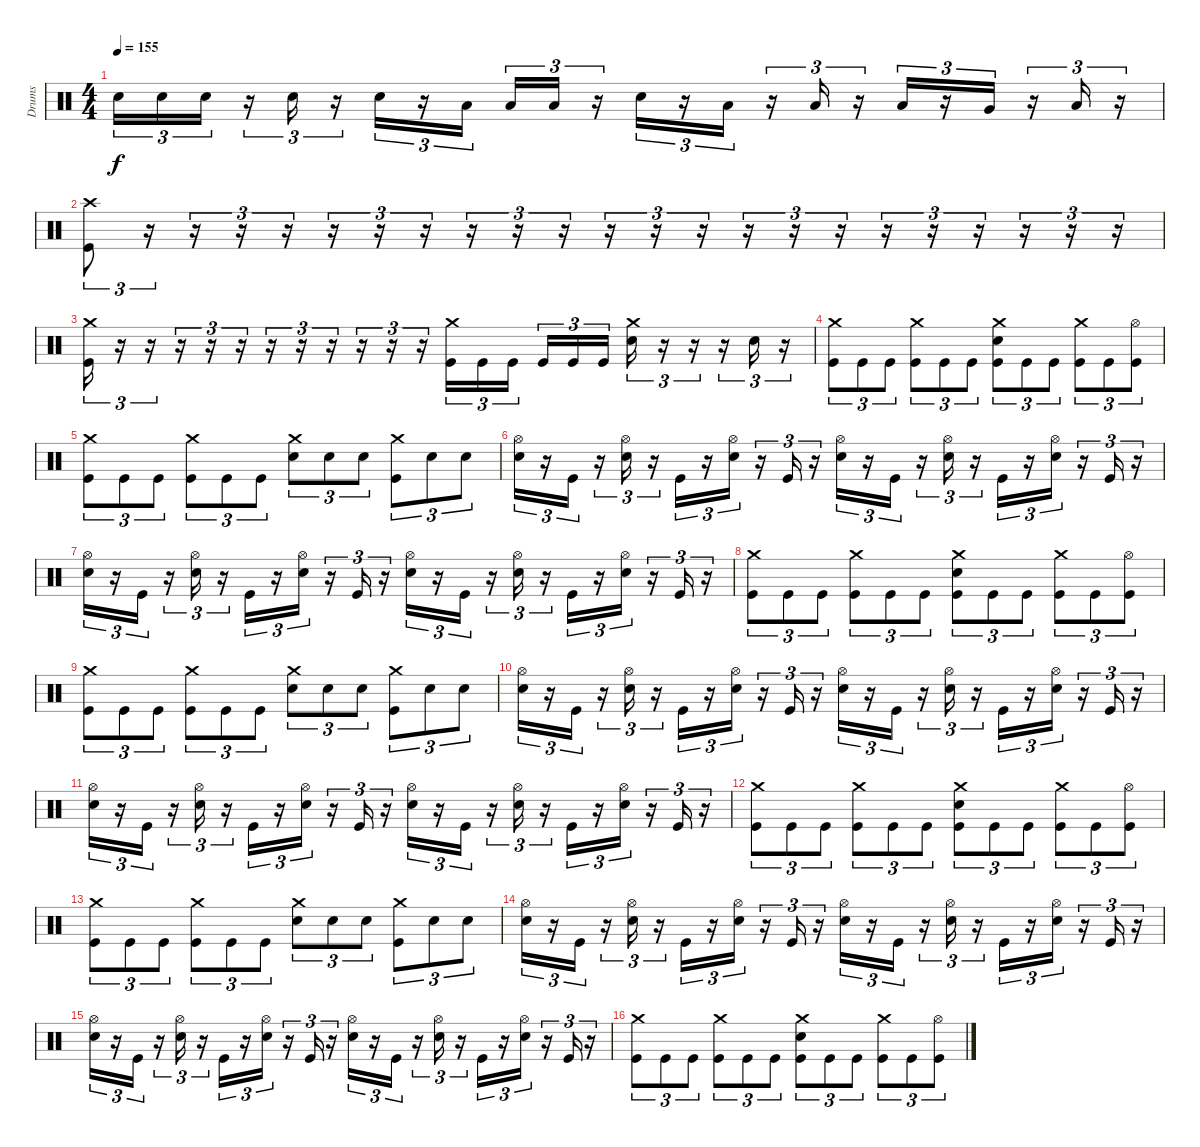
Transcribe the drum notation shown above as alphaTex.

\track ("Drums" "Drums") {instrument percussion}
\staff {score}
\articulation defaults
\ts (4 4)
\tempo 155
\clef neutral
\ks c "Electric Snare (hit)".16{tu (3 2) dy f} "Electric Snare (hit)".16{tu (3 2)} "Electric Snare (hit)".16{tu (3 2)}
r.16{tu (3 2)} "Electric Snare (hit)".16{tu (3 2)} r.16{tu (3 2)} "Electric Snare (hit)".16{tu (3 2)} r.16{tu (3 2)} "Low Tom (hit)".16{tu (3 2) beam splitsecondary} "Low Tom (hit)".16{tu (3 2)} "Low Tom (hit)".16{tu (3 2)} r.16{tu (3 2)} "Electric Snare (hit)".16{tu (3 2)} r.16{tu (3 2)} "Low Tom (hit)".16{tu (3 2)} r.16{tu (3 2)} "Low Tom (hit)".16{tu (3 2)} r.16{tu (3 2)} "Low Tom (hit)".16{tu (3 2)} r.16{tu (3 2)} "Very Low Tom (hit)".16{tu (3 2)} r.16{tu (3 2)} "Low Floor Tom (hit)".16{tu (3 2)} r.16{tu (3 2)} |
("Crash high (hit)" "Kick (hit)").8{tu (3 2)} r.16{tu (3 2)} r.16{tu (3 2)} r.16{tu (3 2)} r.16{tu (3 2)} r.16{tu (3 2)} r.16{tu (3 2)} r.16{tu (3 2)} r.16{tu (3 2)} r.16{tu (3 2)} r.16{tu (3 2)} r.16{tu (3 2)} r.16{tu (3 2)} r.16{tu (3 2)} r.16{tu (3 2)} r.16{tu (3 2)} r.16{tu (3 2)} r.16{tu (3 2)} r.16{tu (3 2)} r.16{tu (3 2)} r.16{tu (3 2)} r.16{tu (3 2)} r.16{tu (3 2)} |
("Crash medium (hit)" "Kick (hit)").16{tu (3 2)} r.16{tu (3 2)} r.16{tu (3 2)} r.16{tu (3 2)} r.16{tu (3 2)} r.16{tu (3 2)} r.16{tu (3 2)} r.16{tu (3 2)} r.16{tu (3 2)} r.16{tu (3 2)} r.16{tu (3 2)} r.16{tu (3 2)} ("Crash medium (hit)" "Kick (hit)").16{tu (3 2)} "Kick (hit)".16{tu (3 2)} "Kick (hit)".16{tu (3 2) beam splitsecondary} "Kick (hit)".16{tu (3 2)} "Kick (hit)".16{tu (3 2)} "Kick (hit)".16{tu (3 2)} ("Crash medium (hit)" "Electric Snare (hit)").16{tu (3 2)} r.16{tu (3 2)} r.16{tu (3 2)} r.16{tu (3 2)} "Electric Snare (hit)".16{tu (3 2)} r.16{tu (3 2)} |
("Crash medium (hit)" "Kick (hit)").8{tu (3 2)} "Kick (hit)".8{tu (3 2)} "Kick (hit)".8{tu (3 2)} ("Crash medium (hit)" "Kick (hit)").8{tu (3 2)} "Kick (hit)".8{tu (3 2)} "Kick (hit)".8{tu (3 2)} ("Crash medium (hit)" "Electric Snare (hit)" "Kick (hit)").8{tu (3 2)} "Kick (hit)".8{tu (3 2)} "Kick (hit)".8{tu (3 2)} ("Crash medium (hit)" "Kick (hit)").8{tu (3 2)} "Kick (hit)".8{tu (3 2)} ("Hi-Hat (open)" "Kick (hit)").8{tu (3 2)} |
("Crash medium (hit)" "Kick (hit)").8{tu (3 2)} "Kick (hit)".8{tu (3 2)} "Kick (hit)".8{tu (3 2)} ("Crash medium (hit)" "Kick (hit)").8{tu (3 2)} "Kick (hit)".8{tu (3 2)} "Kick (hit)".8{tu (3 2)} ("Crash medium (hit)" "Electric Snare (hit)").8{tu (3 2)} "Electric Snare (hit)".8{tu (3 2)} "Electric Snare (hit)".8{tu (3 2)} ("Crash medium (hit)" "Kick (hit)").8{tu (3 2)} "Electric Snare (hit)".8{tu (3 2)} "Electric Snare (hit)".8{tu (3 2)} |
("Hi-Hat (open)" "Electric Snare (hit)").16{tu (3 2)} r.16{tu (3 2)} "Kick (hit)".16{tu (3 2)} r.16{tu (3 2)} ("Hi-Hat (open)" "Electric Snare (hit)").16{tu (3 2)} r.16{tu (3 2)} "Kick (hit)".16{tu (3 2)} r.16{tu (3 2)} ("Hi-Hat (open)" "Electric Snare (hit)").16{tu (3 2)} r.16{tu (3 2)} "Kick (hit)".16{tu (3 2)} r.16{tu (3 2)} ("Hi-Hat (open)" "Electric Snare (hit)").16{tu (3 2)} r.16{tu (3 2)} "Kick (hit)".16{tu (3 2)} r.16{tu (3 2)} ("Hi-Hat (open)" "Electric Snare (hit)").16{tu (3 2)} r.16{tu (3 2)} "Kick (hit)".16{tu (3 2)} r.16{tu (3 2)} ("Hi-Hat (open)" "Electric Snare (hit)").16{tu (3 2)} r.16{tu (3 2)} "Kick (hit)".16{tu (3 2)} r.16{tu (3 2)} |
("Hi-Hat (open)" "Electric Snare (hit)").16{tu (3 2)} r.16{tu (3 2)} "Kick (hit)".16{tu (3 2)} r.16{tu (3 2)} ("Hi-Hat (open)" "Electric Snare (hit)").16{tu (3 2)} r.16{tu (3 2)} "Kick (hit)".16{tu (3 2)} r.16{tu (3 2)} ("Hi-Hat (open)" "Electric Snare (hit)").16{tu (3 2)} r.16{tu (3 2)} "Kick (hit)".16{tu (3 2)} r.16{tu (3 2)} ("Hi-Hat (open)" "Electric Snare (hit)").16{tu (3 2)} r.16{tu (3 2)} "Kick (hit)".16{tu (3 2)} r.16{tu (3 2)} ("Hi-Hat (open)" "Electric Snare (hit)").16{tu (3 2)} r.16{tu (3 2)} "Kick (hit)".16{tu (3 2)} r.16{tu (3 2)} ("Hi-Hat (open)" "Electric Snare (hit)").16{tu (3 2)} r.16{tu (3 2)} "Kick (hit)".16{tu (3 2)} r.16{tu (3 2)} |
("Crash medium (hit)" "Kick (hit)").8{tu (3 2)} "Kick (hit)".8{tu (3 2)} "Kick (hit)".8{tu (3 2)} ("Crash medium (hit)" "Kick (hit)").8{tu (3 2)} "Kick (hit)".8{tu (3 2)} "Kick (hit)".8{tu (3 2)} ("Crash medium (hit)" "Electric Snare (hit)" "Kick (hit)").8{tu (3 2)} "Kick (hit)".8{tu (3 2)} "Kick (hit)".8{tu (3 2)} ("Crash medium (hit)" "Kick (hit)").8{tu (3 2)} "Kick (hit)".8{tu (3 2)} ("Hi-Hat (open)" "Kick (hit)").8{tu (3 2)} |
("Crash medium (hit)" "Kick (hit)").8{tu (3 2)} "Kick (hit)".8{tu (3 2)} "Kick (hit)".8{tu (3 2)} ("Crash medium (hit)" "Kick (hit)").8{tu (3 2)} "Kick (hit)".8{tu (3 2)} "Kick (hit)".8{tu (3 2)} ("Crash medium (hit)" "Electric Snare (hit)").8{tu (3 2)} "Electric Snare (hit)".8{tu (3 2)} "Electric Snare (hit)".8{tu (3 2)} ("Crash medium (hit)" "Kick (hit)").8{tu (3 2)} "Electric Snare (hit)".8{tu (3 2)} "Electric Snare (hit)".8{tu (3 2)} |
("Hi-Hat (open)" "Electric Snare (hit)").16{tu (3 2)} r.16{tu (3 2)} "Kick (hit)".16{tu (3 2)} r.16{tu (3 2)} ("Hi-Hat (open)" "Electric Snare (hit)").16{tu (3 2)} r.16{tu (3 2)} "Kick (hit)".16{tu (3 2)} r.16{tu (3 2)} ("Hi-Hat (open)" "Electric Snare (hit)").16{tu (3 2)} r.16{tu (3 2)} "Kick (hit)".16{tu (3 2)} r.16{tu (3 2)} ("Hi-Hat (open)" "Electric Snare (hit)").16{tu (3 2)} r.16{tu (3 2)} "Kick (hit)".16{tu (3 2)} r.16{tu (3 2)} ("Hi-Hat (open)" "Electric Snare (hit)").16{tu (3 2)} r.16{tu (3 2)} "Kick (hit)".16{tu (3 2)} r.16{tu (3 2)} ("Hi-Hat (open)" "Electric Snare (hit)").16{tu (3 2)} r.16{tu (3 2)} "Kick (hit)".16{tu (3 2)} r.16{tu (3 2)} |
("Hi-Hat (open)" "Electric Snare (hit)").16{tu (3 2)} r.16{tu (3 2)} "Kick (hit)".16{tu (3 2)} r.16{tu (3 2)} ("Hi-Hat (open)" "Electric Snare (hit)").16{tu (3 2)} r.16{tu (3 2)} "Kick (hit)".16{tu (3 2)} r.16{tu (3 2)} ("Hi-Hat (open)" "Electric Snare (hit)").16{tu (3 2)} r.16{tu (3 2)} "Kick (hit)".16{tu (3 2)} r.16{tu (3 2)} ("Hi-Hat (open)" "Electric Snare (hit)").16{tu (3 2)} r.16{tu (3 2)} "Kick (hit)".16{tu (3 2)} r.16{tu (3 2)} ("Hi-Hat (open)" "Electric Snare (hit)").16{tu (3 2)} r.16{tu (3 2)} "Kick (hit)".16{tu (3 2)} r.16{tu (3 2)} ("Hi-Hat (open)" "Electric Snare (hit)").16{tu (3 2)} r.16{tu (3 2)} "Kick (hit)".16{tu (3 2)} r.16{tu (3 2)} |
("Crash medium (hit)" "Kick (hit)").8{tu (3 2)} "Kick (hit)".8{tu (3 2)} "Kick (hit)".8{tu (3 2)} ("Crash medium (hit)" "Kick (hit)").8{tu (3 2)} "Kick (hit)".8{tu (3 2)} "Kick (hit)".8{tu (3 2)} ("Crash medium (hit)" "Electric Snare (hit)" "Kick (hit)").8{tu (3 2)} "Kick (hit)".8{tu (3 2)} "Kick (hit)".8{tu (3 2)} ("Crash medium (hit)" "Kick (hit)").8{tu (3 2)} "Kick (hit)".8{tu (3 2)} ("Hi-Hat (open)" "Kick (hit)").8{tu (3 2)} |
("Crash medium (hit)" "Kick (hit)").8{tu (3 2)} "Kick (hit)".8{tu (3 2)} "Kick (hit)".8{tu (3 2)} ("Crash medium (hit)" "Kick (hit)").8{tu (3 2)} "Kick (hit)".8{tu (3 2)} "Kick (hit)".8{tu (3 2)} ("Crash medium (hit)" "Electric Snare (hit)").8{tu (3 2)} "Electric Snare (hit)".8{tu (3 2)} "Electric Snare (hit)".8{tu (3 2)} ("Crash medium (hit)" "Kick (hit)").8{tu (3 2)} "Electric Snare (hit)".8{tu (3 2)} "Electric Snare (hit)".8{tu (3 2)} |
("Hi-Hat (open)" "Electric Snare (hit)").16{tu (3 2)} r.16{tu (3 2)} "Kick (hit)".16{tu (3 2)} r.16{tu (3 2)} ("Hi-Hat (open)" "Electric Snare (hit)").16{tu (3 2)} r.16{tu (3 2)} "Kick (hit)".16{tu (3 2)} r.16{tu (3 2)} ("Hi-Hat (open)" "Electric Snare (hit)").16{tu (3 2)} r.16{tu (3 2)} "Kick (hit)".16{tu (3 2)} r.16{tu (3 2)} ("Hi-Hat (open)" "Electric Snare (hit)").16{tu (3 2)} r.16{tu (3 2)} "Kick (hit)".16{tu (3 2)} r.16{tu (3 2)} ("Hi-Hat (open)" "Electric Snare (hit)").16{tu (3 2)} r.16{tu (3 2)} "Kick (hit)".16{tu (3 2)} r.16{tu (3 2)} ("Hi-Hat (open)" "Electric Snare (hit)").16{tu (3 2)} r.16{tu (3 2)} "Kick (hit)".16{tu (3 2)} r.16{tu (3 2)} |
("Hi-Hat (open)" "Electric Snare (hit)").16{tu (3 2)} r.16{tu (3 2)} "Kick (hit)".16{tu (3 2)} r.16{tu (3 2)} ("Hi-Hat (open)" "Electric Snare (hit)").16{tu (3 2)} r.16{tu (3 2)} "Kick (hit)".16{tu (3 2)} r.16{tu (3 2)} ("Hi-Hat (open)" "Electric Snare (hit)").16{tu (3 2)} r.16{tu (3 2)} "Kick (hit)".16{tu (3 2)} r.16{tu (3 2)} ("Hi-Hat (open)" "Electric Snare (hit)").16{tu (3 2)} r.16{tu (3 2)} "Kick (hit)".16{tu (3 2)} r.16{tu (3 2)} ("Hi-Hat (open)" "Electric Snare (hit)").16{tu (3 2)} r.16{tu (3 2)} "Kick (hit)".16{tu (3 2)} r.16{tu (3 2)} ("Hi-Hat (open)" "Electric Snare (hit)").16{tu (3 2)} r.16{tu (3 2)} "Kick (hit)".16{tu (3 2)} r.16{tu (3 2)} |
("Crash medium (hit)" "Kick (hit)").8{tu (3 2)} "Kick (hit)".8{tu (3 2)} "Kick (hit)".8{tu (3 2)} ("Crash medium (hit)" "Kick (hit)").8{tu (3 2)} "Kick (hit)".8{tu (3 2)} "Kick (hit)".8{tu (3 2)} ("Crash medium (hit)" "Electric Snare (hit)" "Kick (hit)").8{tu (3 2)} "Kick (hit)".8{tu (3 2)} "Kick (hit)".8{tu (3 2)} ("Crash medium (hit)" "Kick (hit)").8{tu (3 2)} "Kick (hit)".8{tu (3 2)} ("Hi-Hat (open)" "Kick (hit)").8{tu (3 2)}
